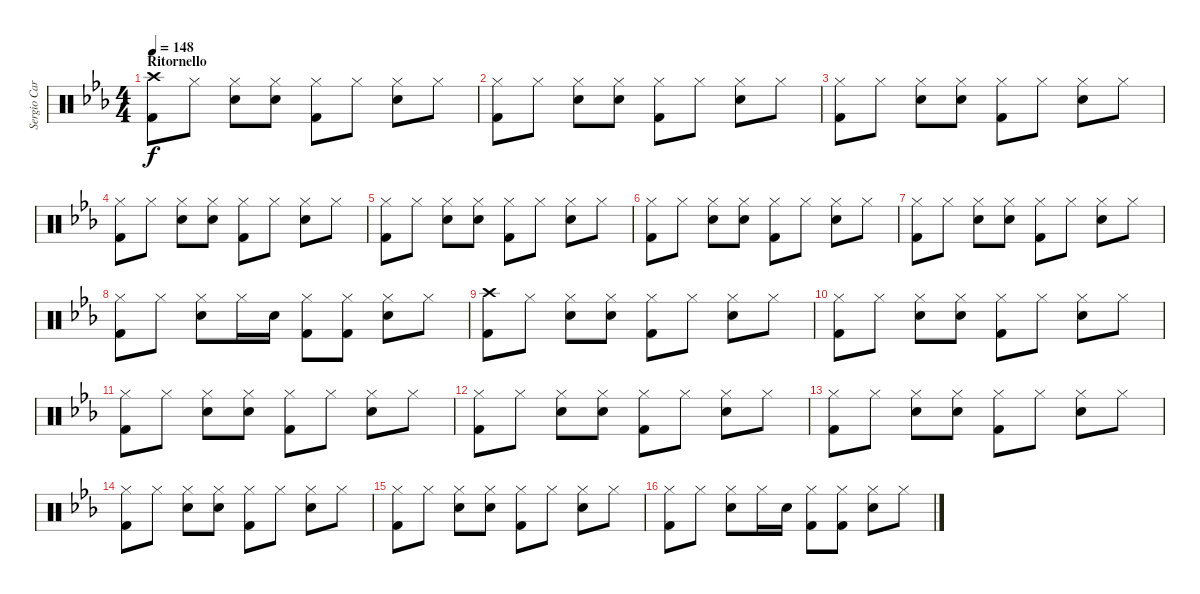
\track ("Sergio Carnevale [Batteria]" "Sergio Car") {instrument percussion}
\staff {score}
\articulation defaults
\ts (4 4)
\section ("" "Ritornello")
\tempo 148
\clef neutral
\ks cminor
("Crash high (hit)" "Kick (hit) 2").8{dy f} "Hi-Hat (closed)".8 ("Hi-Hat (closed)" "Snare (hit) 2").8 ("Hi-Hat (closed)" "Snare (hit) 2").8 ("Hi-Hat (closed)" "Kick (hit) 2").8 "Hi-Hat (closed)".8 ("Hi-Hat (closed)" "Snare (hit) 2").8 "Hi-Hat (closed)".8 |
("Hi-Hat (closed)" "Kick (hit) 2").8 "Hi-Hat (closed)".8 ("Hi-Hat (closed)" "Snare (hit) 2").8 ("Hi-Hat (closed)" "Snare (hit) 2").8 ("Hi-Hat (closed)" "Kick (hit) 2").8 "Hi-Hat (closed)".8 ("Hi-Hat (closed)" "Snare (hit) 2").8 "Hi-Hat (closed)".8 |
("Hi-Hat (closed)" "Kick (hit) 2").8 "Hi-Hat (closed)".8 ("Hi-Hat (closed)" "Snare (hit) 2").8 ("Hi-Hat (closed)" "Snare (hit) 2").8 ("Hi-Hat (closed)" "Kick (hit) 2").8 "Hi-Hat (closed)".8 ("Hi-Hat (closed)" "Snare (hit) 2").8 "Hi-Hat (closed)".8 |
("Hi-Hat (closed)" "Kick (hit) 2").8 "Hi-Hat (closed)".8 ("Hi-Hat (closed)" "Snare (hit) 2").8 ("Hi-Hat (closed)" "Snare (hit) 2").8 ("Hi-Hat (closed)" "Kick (hit) 2").8 "Hi-Hat (closed)".8 ("Hi-Hat (closed)" "Snare (hit) 2").8 "Hi-Hat (closed)".8 |
("Hi-Hat (closed)" "Kick (hit) 2").8 "Hi-Hat (closed)".8 ("Hi-Hat (closed)" "Snare (hit) 2").8 ("Hi-Hat (closed)" "Snare (hit) 2").8 ("Hi-Hat (closed)" "Kick (hit) 2").8 "Hi-Hat (closed)".8 ("Hi-Hat (closed)" "Snare (hit) 2").8 "Hi-Hat (closed)".8 |
("Hi-Hat (closed)" "Kick (hit) 2").8 "Hi-Hat (closed)".8 ("Hi-Hat (closed)" "Snare (hit) 2").8 ("Hi-Hat (closed)" "Snare (hit) 2").8 ("Hi-Hat (closed)" "Kick (hit) 2").8 "Hi-Hat (closed)".8 ("Hi-Hat (closed)" "Snare (hit) 2").8 "Hi-Hat (closed)".8 |
("Hi-Hat (closed)" "Kick (hit) 2").8 "Hi-Hat (closed)".8 ("Hi-Hat (closed)" "Snare (hit) 2").8 ("Hi-Hat (closed)" "Snare (hit) 2").8 ("Hi-Hat (closed)" "Kick (hit) 2").8 "Hi-Hat (closed)".8 ("Hi-Hat (closed)" "Snare (hit) 2").8 "Hi-Hat (closed)".8 |
("Hi-Hat (closed)" "Kick (hit) 2").8 "Hi-Hat (closed)".8 ("Hi-Hat (closed)" "Snare (hit) 2").8 "Hi-Hat (closed)".16 "Snare (hit) 2".16 ("Hi-Hat (closed)" "Kick (hit) 2").8 ("Hi-Hat (closed)" "Kick (hit) 2").8 ("Hi-Hat (closed)" "Snare (hit) 2").8 "Hi-Hat (closed)".8 |
("Crash high (hit)" "Kick (hit) 2").8 "Hi-Hat (closed)".8 ("Hi-Hat (closed)" "Snare (hit) 2").8 ("Hi-Hat (closed)" "Snare (hit) 2").8 ("Hi-Hat (closed)" "Kick (hit) 2").8 "Hi-Hat (closed)".8 ("Hi-Hat (closed)" "Snare (hit) 2").8 "Hi-Hat (closed)".8 |
("Hi-Hat (closed)" "Kick (hit) 2").8 "Hi-Hat (closed)".8 ("Hi-Hat (closed)" "Snare (hit) 2").8 ("Hi-Hat (closed)" "Snare (hit) 2").8 ("Hi-Hat (closed)" "Kick (hit) 2").8 "Hi-Hat (closed)".8 ("Hi-Hat (closed)" "Snare (hit) 2").8 "Hi-Hat (closed)".8 |
("Hi-Hat (closed)" "Kick (hit) 2").8 "Hi-Hat (closed)".8 ("Hi-Hat (closed)" "Snare (hit) 2").8 ("Hi-Hat (closed)" "Snare (hit) 2").8 ("Hi-Hat (closed)" "Kick (hit) 2").8 "Hi-Hat (closed)".8 ("Hi-Hat (closed)" "Snare (hit) 2").8 "Hi-Hat (closed)".8 |
("Hi-Hat (closed)" "Kick (hit) 2").8 "Hi-Hat (closed)".8 ("Hi-Hat (closed)" "Snare (hit) 2").8 ("Hi-Hat (closed)" "Snare (hit) 2").8 ("Hi-Hat (closed)" "Kick (hit) 2").8 "Hi-Hat (closed)".8 ("Hi-Hat (closed)" "Snare (hit) 2").8 "Hi-Hat (closed)".8 |
("Hi-Hat (closed)" "Kick (hit) 2").8 "Hi-Hat (closed)".8 ("Hi-Hat (closed)" "Snare (hit) 2").8 ("Hi-Hat (closed)" "Snare (hit) 2").8 ("Hi-Hat (closed)" "Kick (hit) 2").8 "Hi-Hat (closed)".8 ("Hi-Hat (closed)" "Snare (hit) 2").8 "Hi-Hat (closed)".8 |
("Hi-Hat (closed)" "Kick (hit) 2").8 "Hi-Hat (closed)".8 ("Hi-Hat (closed)" "Snare (hit) 2").8 ("Hi-Hat (closed)" "Snare (hit) 2").8 ("Hi-Hat (closed)" "Kick (hit) 2").8 "Hi-Hat (closed)".8 ("Hi-Hat (closed)" "Snare (hit) 2").8 "Hi-Hat (closed)".8 |
("Hi-Hat (closed)" "Kick (hit) 2").8 "Hi-Hat (closed)".8 ("Hi-Hat (closed)" "Snare (hit) 2").8 ("Hi-Hat (closed)" "Snare (hit) 2").8 ("Hi-Hat (closed)" "Kick (hit) 2").8 "Hi-Hat (closed)".8 ("Hi-Hat (closed)" "Snare (hit) 2").8 "Hi-Hat (closed)".8 |
("Hi-Hat (closed)" "Kick (hit) 2").8 "Hi-Hat (closed)".8 ("Hi-Hat (closed)" "Snare (hit) 2").8 "Hi-Hat (closed)".16 "Snare (hit) 2".16 ("Hi-Hat (closed)" "Kick (hit) 2").8 ("Hi-Hat (closed)" "Kick (hit) 2").8 ("Hi-Hat (closed)" "Snare (hit) 2").8 "Hi-Hat (closed)".8
